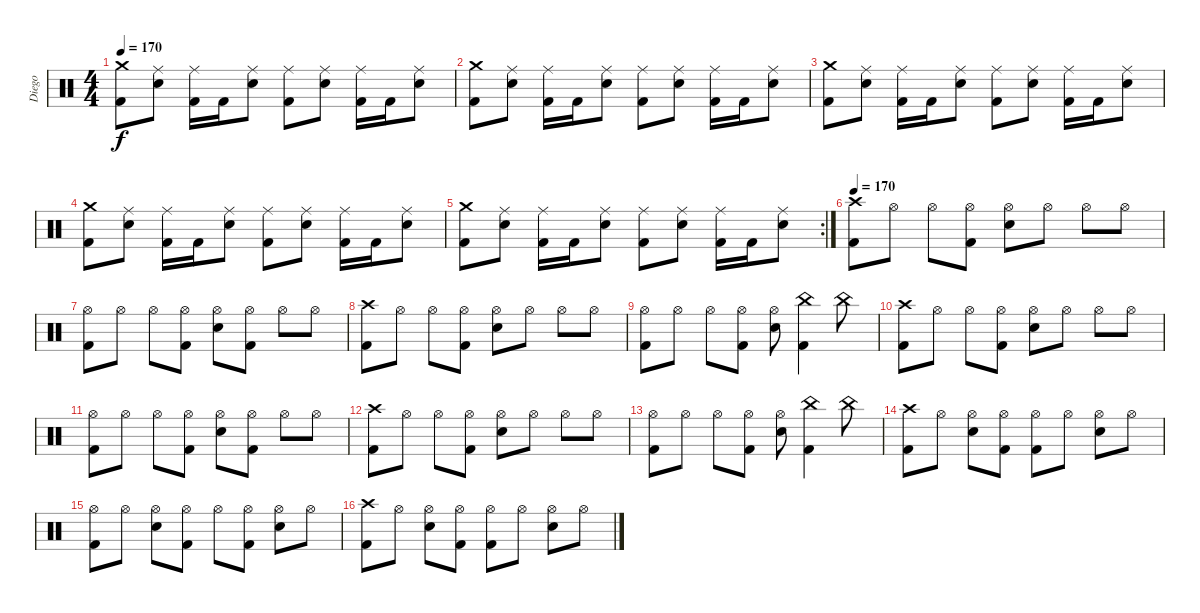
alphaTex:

\track ("Diego" "Diego") {instrument percussion}
\staff {score}
\articulation defaults
\ts (4 4)
\tempo 170
\clef neutral
\ks c
("Crash medium (hit)" "Kick (hit) 2").8{dy f} ("Ride (middle)" "Electric Snare (hit)").8 ("Ride (middle)" "Kick (hit) 2").16 "Kick (hit) 2".16 ("Ride (middle)" "Electric Snare (hit)").8 ("Ride (middle)" "Kick (hit) 2").8 ("Ride (middle)" "Electric Snare (hit)").8 ("Ride (middle)" "Kick (hit) 2").16 "Kick (hit) 2".16 ("Ride (middle)" "Electric Snare (hit)").8 |
("Crash medium (hit)" "Kick (hit) 2").8 ("Ride (middle)" "Electric Snare (hit)").8 ("Ride (middle)" "Kick (hit) 2").16 "Kick (hit) 2".16 ("Ride (middle)" "Electric Snare (hit)").8 ("Ride (middle)" "Kick (hit) 2").8 ("Ride (middle)" "Electric Snare (hit)").8 ("Ride (middle)" "Kick (hit) 2").16 "Kick (hit) 2".16 ("Ride (middle)" "Electric Snare (hit)").8 |
("Crash medium (hit)" "Kick (hit) 2").8 ("Ride (middle)" "Electric Snare (hit)").8 ("Ride (middle)" "Kick (hit) 2").16 "Kick (hit) 2".16 ("Ride (middle)" "Electric Snare (hit)").8 ("Ride (middle)" "Kick (hit) 2").8 ("Ride (middle)" "Electric Snare (hit)").8 ("Ride (middle)" "Kick (hit) 2").16 "Kick (hit) 2".16 ("Ride (middle)" "Electric Snare (hit)").8 |
("Crash medium (hit)" "Kick (hit) 2").8 ("Ride (middle)" "Electric Snare (hit)").8 ("Ride (middle)" "Kick (hit) 2").16 "Kick (hit) 2".16 ("Ride (middle)" "Electric Snare (hit)").8 ("Ride (middle)" "Kick (hit) 2").8 ("Ride (middle)" "Electric Snare (hit)").8 ("Ride (middle)" "Kick (hit) 2").16 "Kick (hit) 2".16 ("Ride (middle)" "Electric Snare (hit)").8 |
\rc 2
("Crash medium (hit)" "Kick (hit) 2").8 ("Ride (middle)" "Electric Snare (hit)").8 ("Ride (middle)" "Kick (hit) 2").16 "Kick (hit) 2".16 ("Ride (middle)" "Electric Snare (hit)").8 ("Ride (middle)" "Kick (hit) 2").8 ("Ride (middle)" "Electric Snare (hit)").8 ("Ride (middle)" "Kick (hit) 2").16 "Kick (hit) 2".16 ("Ride (middle)" "Electric Snare (hit)").8 |
\tempo 170
("Crash high (hit)" "Kick (hit) 2").8 "Hi-Hat (open)".8 "Hi-Hat (open)".8 ("Hi-Hat (open)" "Kick (hit) 2").8 ("Hi-Hat (open)" "Electric Snare (hit)").8 "Hi-Hat (open)".8 "Hi-Hat (open)".8 "Hi-Hat (open)".8 |
("Hi-Hat (open)" "Kick (hit) 2").8 "Hi-Hat (open)".8 "Hi-Hat (open)".8 ("Hi-Hat (open)" "Kick (hit) 2").8 ("Hi-Hat (open)" "Electric Snare (hit)").8 ("Hi-Hat (open)" "Kick (hit) 2").8 "Hi-Hat (open)".8 "Hi-Hat (open)".8 |
("Crash high (hit)" "Kick (hit) 2").8 "Hi-Hat (open)".8 "Hi-Hat (open)".8 ("Hi-Hat (open)" "Kick (hit) 2").8 ("Hi-Hat (open)" "Electric Snare (hit)").8 "Hi-Hat (open)".8 "Hi-Hat (open)".8 "Hi-Hat (open)".8 |
("Hi-Hat (open)" "Kick (hit) 2").8 "Hi-Hat (open)".8 "Hi-Hat (open)".8 ("Hi-Hat (open)" "Kick (hit) 2").8 ("Hi-Hat (open)" "Electric Snare (hit)").8 ("China (hit)" "Kick (hit) 2").4 "China (hit)".8 |
("Crash high (hit)" "Kick (hit) 2").8 "Hi-Hat (open)".8 "Hi-Hat (open)".8 ("Hi-Hat (open)" "Kick (hit) 2").8 ("Hi-Hat (open)" "Electric Snare (hit)").8 "Hi-Hat (open)".8 "Hi-Hat (open)".8 "Hi-Hat (open)".8 |
("Hi-Hat (open)" "Kick (hit) 2").8 "Hi-Hat (open)".8 "Hi-Hat (open)".8 ("Hi-Hat (open)" "Kick (hit) 2").8 ("Hi-Hat (open)" "Electric Snare (hit)").8 ("Hi-Hat (open)" "Kick (hit) 2").8 "Hi-Hat (open)".8 "Hi-Hat (open)".8 |
("Crash high (hit)" "Kick (hit) 2").8 "Hi-Hat (open)".8 "Hi-Hat (open)".8 ("Hi-Hat (open)" "Kick (hit) 2").8 ("Hi-Hat (open)" "Electric Snare (hit)").8 "Hi-Hat (open)".8 "Hi-Hat (open)".8 "Hi-Hat (open)".8 |
("Hi-Hat (open)" "Kick (hit) 2").8 "Hi-Hat (open)".8 "Hi-Hat (open)".8 ("Hi-Hat (open)" "Kick (hit) 2").8 ("Hi-Hat (open)" "Electric Snare (hit)").8 ("China (hit)" "Kick (hit) 2").4 "China (hit)".8 |
("Crash high (hit)" "Kick (hit) 2").8 "Hi-Hat (open)".8 ("Hi-Hat (open)" "Electric Snare (hit)").8 ("Hi-Hat (open)" "Kick (hit) 2").8 ("Hi-Hat (open)" "Kick (hit) 2").8 "Hi-Hat (open)".8 ("Hi-Hat (open)" "Electric Snare (hit)").8 "Hi-Hat (open)".8 |
("Hi-Hat (open)" "Kick (hit) 2").8 "Hi-Hat (open)".8 ("Hi-Hat (open)" "Electric Snare (hit)").8 ("Hi-Hat (open)" "Kick (hit) 2").8 "Hi-Hat (open)".8 ("Hi-Hat (open)" "Kick (hit) 2").8 ("Hi-Hat (open)" "Electric Snare (hit)").8 "Hi-Hat (open)".8 |
("Crash high (hit)" "Kick (hit) 2").8 "Hi-Hat (open)".8 ("Hi-Hat (open)" "Electric Snare (hit)").8 ("Hi-Hat (open)" "Kick (hit) 2").8 ("Hi-Hat (open)" "Kick (hit) 2").8 "Hi-Hat (open)".8 ("Hi-Hat (open)" "Electric Snare (hit)").8 "Hi-Hat (open)".8
